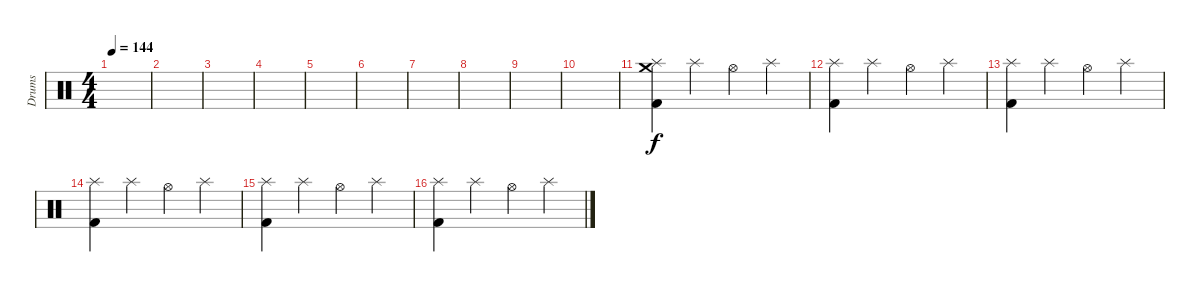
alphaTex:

\track ("Drums" "Drums") {instrument percussion}
\staff {score}
\articulation defaults
\ts (4 4)
\tempo 144
\clef neutral
\ks c
|
|
|
|
|
|
|
|
|
|
("Splash (hit)" "Crash medium (hit)" "Kick (hit) 2").4 "Splash (hit)".4 "Hi-Hat (open)".4 "Splash (hit)".4 |
("Splash (hit)" "Kick (hit) 2").4 "Splash (hit)".4 "Hi-Hat (open)".4 "Splash (hit)".4 |
("Splash (hit)" "Kick (hit) 2").4 "Splash (hit)".4 "Hi-Hat (open)".4 "Splash (hit)".4 |
("Splash (hit)" "Kick (hit) 2").4 "Splash (hit)".4 "Hi-Hat (open)".4 "Splash (hit)".4 |
("Splash (hit)" "Kick (hit) 2").4 "Splash (hit)".4 "Hi-Hat (open)".4 "Splash (hit)".4 |
("Splash (hit)" "Kick (hit) 2").4 "Splash (hit)".4 "Hi-Hat (open)".4 "Splash (hit)".4
